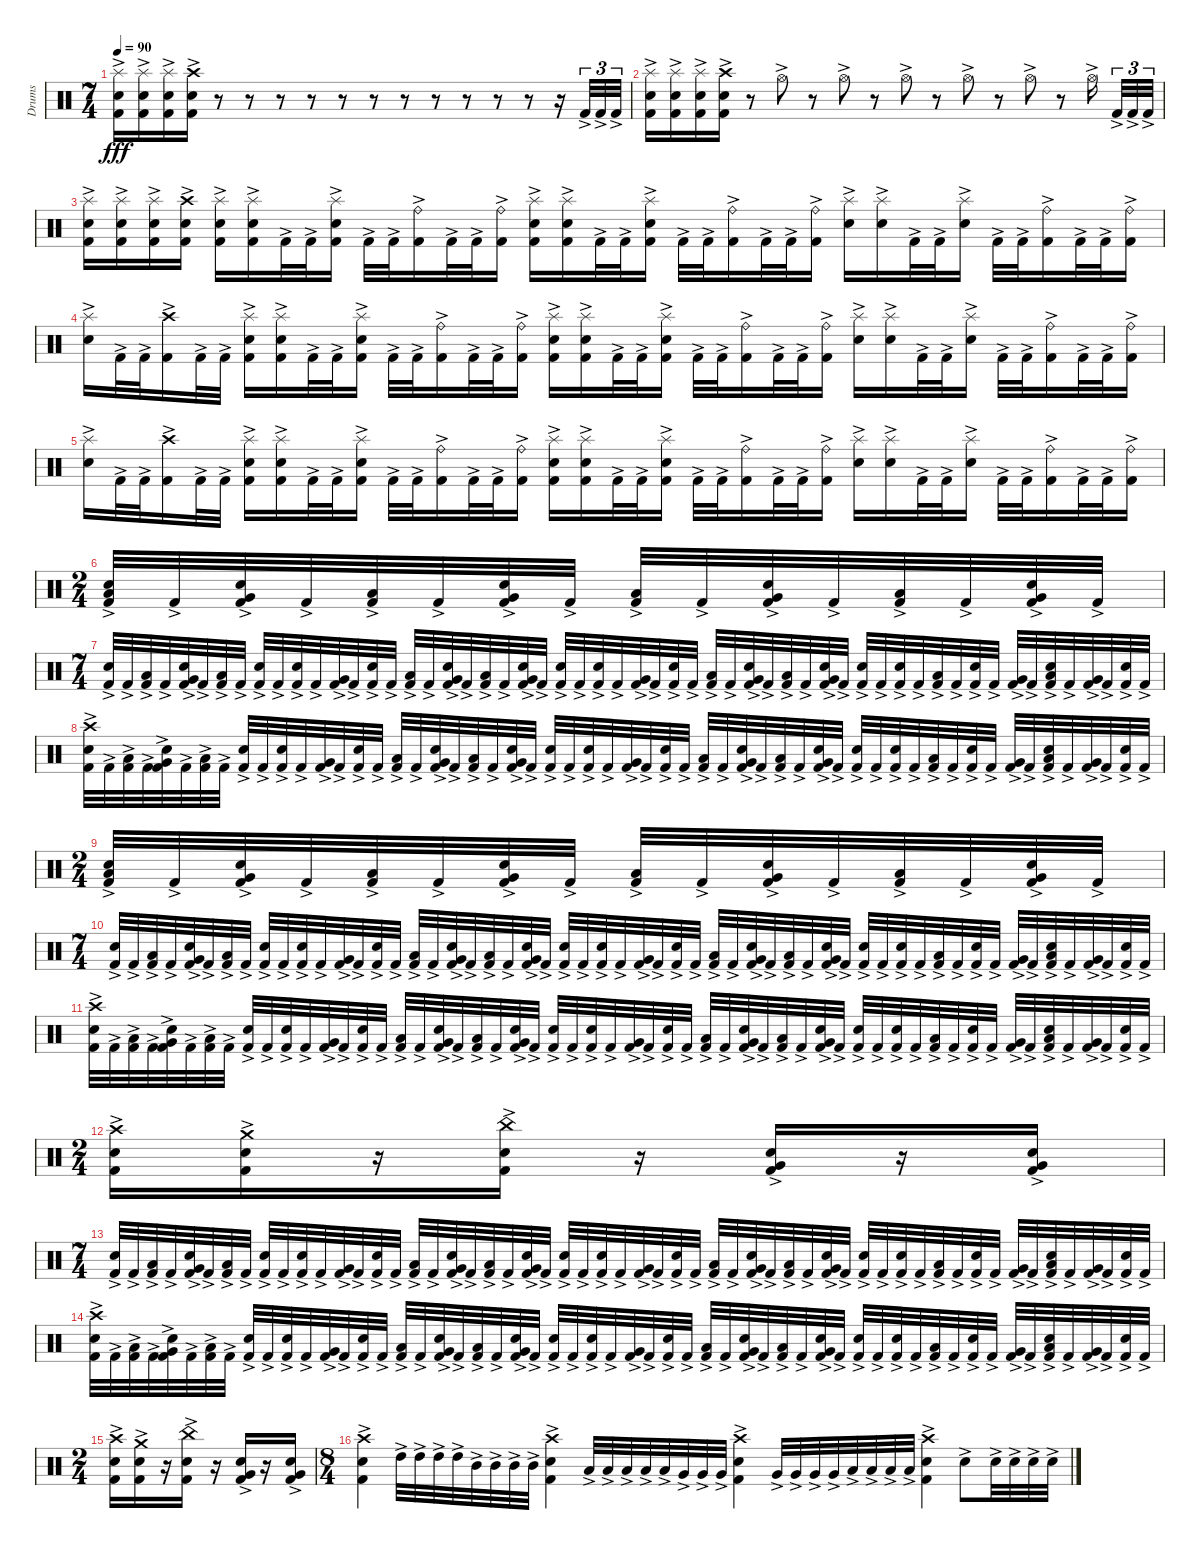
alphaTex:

\track ("Drums" "Drums") {instrument percussion}
\staff {score}
\articulation defaults
\ts (7 4)
\tempo 90
\clef neutral
\ks c
("Splash (hit)"{ac} "Snare (hit) 2"{ac} "Kick (hit) 2"{ac}).16{dy fff} ("Splash (hit)"{ac} "Snare (hit) 2"{ac} "Kick (hit) 2"{ac}).16 ("Splash (hit)"{ac} "Snare (hit) 2"{ac} "Kick (hit) 2"{ac}).16 ("Crash high (hit)"{ac} "Snare (hit) 2"{ac} "Kick (hit) 2"{ac}).16 r.8 r.8 r.8 r.8 r.8 r.8 r.8 r.8 r.8 r.8 r.8 r.16 "Kick (hit) 2"{ac}.32{tu (3 2)} "Kick (hit) 2"{ac}.32{tu (3 2)} "Kick (hit) 2"{ac}.32{tu (3 2)} |
("Splash (hit)"{ac} "Snare (hit) 2"{ac} "Kick (hit) 2"{ac}).16 ("Splash (hit)"{ac} "Snare (hit) 2"{ac} "Kick (hit) 2"{ac}).16 ("Splash (hit)"{ac} "Snare (hit) 2"{ac} "Kick (hit) 2"{ac}).16 ("Crash high (hit)"{ac} "Snare (hit) 2"{ac} "Kick (hit) 2"{ac}).16 r.8 "Hi-Hat (open)"{ac}.8 r.8 "Hi-Hat (open)"{ac}.8 r.8 "Hi-Hat (open)"{ac}.8 r.8 "Hi-Hat (open)"{ac}.8 r.8 "Hi-Hat (open)"{ac}.8 r.8 "Hi-Hat (open)"{ac}.16 "Kick (hit) 2"{ac}.32{tu (3 2)} "Kick (hit) 2"{ac}.32{tu (3 2)} "Kick (hit) 2"{ac}.32{tu (3 2)} |
("Splash (hit)"{ac} "Snare (hit) 2"{ac} "Kick (hit) 2"{ac}).16 ("Splash (hit)"{ac} "Snare (hit) 2"{ac} "Kick (hit) 2"{ac}).16 ("Splash (hit)"{ac} "Snare (hit) 2"{ac} "Kick (hit) 2"{ac}).16 ("Crash high (hit)"{ac} "Snare (hit) 2"{ac} "Kick (hit) 2"{ac}).16 ("Splash (hit)"{ac} "Snare (hit) 2"{ac} "Kick (hit) 2"{ac}).16 ("Splash (hit)"{ac} "Snare (hit) 2"{ac} "Kick (hit) 2"{ac}).16 "Kick (hit) 2"{ac}.32 "Kick (hit) 2"{ac}.32 ("Splash (hit)"{ac} "Snare (hit) 2"{ac} "Kick (hit) 2"{ac}).16 "Kick (hit) 2"{ac}.32 "Kick (hit) 2"{ac}.32 ("Ride (bell)"{ac} "Kick (hit) 2"{ac}).16 "Kick (hit) 2"{ac}.32 "Kick (hit) 2"{ac}.32 ("Ride (bell)"{ac} "Kick (hit) 2"{ac}).16 ("Splash (hit)"{ac} "Snare (hit) 2"{ac} "Kick (hit) 2"{ac}).16 ("Splash (hit)"{ac} "Snare (hit) 2"{ac} "Kick (hit) 2"{ac}).16 "Kick (hit) 2"{ac}.32 "Kick (hit) 2"{ac}.32 ("Splash (hit)"{ac} "Snare (hit) 2"{ac} "Kick (hit) 2"{ac}).16 "Kick (hit) 2"{ac}.32 "Kick (hit) 2"{ac}.32 ("Ride (bell)"{ac} "Kick (hit) 2"{ac}).16 "Kick (hit) 2"{ac}.32 "Kick (hit) 2"{ac}.32 ("Ride (bell)"{ac} "Kick (hit) 2"{ac}).16 ("Splash (hit)"{ac} "Snare (hit) 2"{ac}).16 ("Splash (hit)"{ac} "Snare (hit) 2"{ac}).16 "Kick (hit) 2"{ac}.32 "Kick (hit) 2"{ac}.32 ("Splash (hit)"{ac} "Snare (hit) 2"{ac}).16 "Kick (hit) 2"{ac}.32 "Kick (hit) 2"{ac}.32 ("Ride (bell)"{ac} "Kick (hit) 2"{ac}).16 "Kick (hit) 2"{ac}.32 "Kick (hit) 2"{ac}.32 ("Ride (bell)"{ac} "Kick (hit) 2"{ac}).16 |
("Splash (hit)"{ac} "Snare (hit) 2"{ac}).16 "Kick (hit) 2"{ac}.32 "Kick (hit) 2"{ac}.32 ("Crash high (hit)"{ac} "Kick (hit) 2"{ac}).16 "Kick (hit) 2"{ac}.32 "Kick (hit) 2"{ac}.32 ("Splash (hit)"{ac} "Snare (hit) 2"{ac} "Kick (hit) 2"{ac}).16 ("Splash (hit)"{ac} "Snare (hit) 2"{ac} "Kick (hit) 2"{ac}).16 "Kick (hit) 2"{ac}.32 "Kick (hit) 2"{ac}.32 ("Splash (hit)"{ac} "Snare (hit) 2"{ac} "Kick (hit) 2"{ac}).16 "Kick (hit) 2"{ac}.32 "Kick (hit) 2"{ac}.32 ("Ride (bell)"{ac} "Kick (hit) 2"{ac}).16 "Kick (hit) 2"{ac}.32 "Kick (hit) 2"{ac}.32 ("Ride (bell)"{ac} "Kick (hit) 2"{ac}).16 ("Splash (hit)"{ac} "Snare (hit) 2"{ac} "Kick (hit) 2"{ac}).16 ("Splash (hit)"{ac} "Snare (hit) 2"{ac} "Kick (hit) 2"{ac}).16 "Kick (hit) 2"{ac}.32 "Kick (hit) 2"{ac}.32 ("Splash (hit)"{ac} "Snare (hit) 2"{ac} "Kick (hit) 2"{ac}).16 "Kick (hit) 2"{ac}.32 "Kick (hit) 2"{ac}.32 ("Ride (bell)"{ac} "Kick (hit) 2"{ac}).16 "Kick (hit) 2"{ac}.32 "Kick (hit) 2"{ac}.32 ("Ride (bell)"{ac} "Kick (hit) 2"{ac}).16 ("Splash (hit)"{ac} "Snare (hit) 2"{ac}).16 ("Splash (hit)"{ac} "Snare (hit) 2"{ac}).16 "Kick (hit) 2"{ac}.32 "Kick (hit) 2"{ac}.32 ("Splash (hit)"{ac} "Snare (hit) 2"{ac}).16 "Kick (hit) 2"{ac}.32 "Kick (hit) 2"{ac}.32 ("Ride (bell)"{ac} "Kick (hit) 2"{ac}).16 "Kick (hit) 2"{ac}.32 "Kick (hit) 2"{ac}.32 ("Ride (bell)"{ac} "Kick (hit) 2"{ac}).16 |
("Splash (hit)"{ac} "Snare (hit) 2"{ac}).16 "Kick (hit) 2"{ac}.32 "Kick (hit) 2"{ac}.32 ("Crash high (hit)"{ac} "Kick (hit) 2"{ac}).16 "Kick (hit) 2"{ac}.32 "Kick (hit) 2"{ac}.32 ("Splash (hit)"{ac} "Snare (hit) 2"{ac} "Kick (hit) 2"{ac}).16 ("Splash (hit)"{ac} "Snare (hit) 2"{ac} "Kick (hit) 2"{ac}).16 "Kick (hit) 2"{ac}.32 "Kick (hit) 2"{ac}.32 ("Splash (hit)"{ac} "Snare (hit) 2"{ac} "Kick (hit) 2"{ac}).16 "Kick (hit) 2"{ac}.32 "Kick (hit) 2"{ac}.32 ("Ride (bell)"{ac} "Kick (hit) 2"{ac}).16 "Kick (hit) 2"{ac}.32 "Kick (hit) 2"{ac}.32 ("Ride (bell)"{ac} "Kick (hit) 2"{ac}).16 ("Splash (hit)"{ac} "Snare (hit) 2"{ac} "Kick (hit) 2"{ac}).16 ("Splash (hit)"{ac} "Snare (hit) 2"{ac} "Kick (hit) 2"{ac}).16 "Kick (hit) 2"{ac}.32 "Kick (hit) 2"{ac}.32 ("Splash (hit)"{ac} "Snare (hit) 2"{ac} "Kick (hit) 2"{ac}).16 "Kick (hit) 2"{ac}.32 "Kick (hit) 2"{ac}.32 ("Ride (bell)"{ac} "Kick (hit) 2"{ac}).16 "Kick (hit) 2"{ac}.32 "Kick (hit) 2"{ac}.32 ("Ride (bell)"{ac} "Kick (hit) 2"{ac}).16 ("Splash (hit)"{ac} "Snare (hit) 2"{ac}).16 ("Splash (hit)"{ac} "Snare (hit) 2"{ac}).16 "Kick (hit) 2"{ac}.32 "Kick (hit) 2"{ac}.32 ("Splash (hit)"{ac} "Snare (hit) 2"{ac}).16 "Kick (hit) 2"{ac}.32 "Kick (hit) 2"{ac}.32 ("Ride (bell)"{ac} "Kick (hit) 2"{ac}).16 "Kick (hit) 2"{ac}.32 "Kick (hit) 2"{ac}.32 ("Ride (bell)"{ac} "Kick (hit) 2"{ac}).16 |
\ts (2 4)
("Low Tom (hit)"{ac} "Snare (hit) 2"{ac} "Kick (hit) 2"{ac}).32 "Kick (hit) 2"{ac}.32 ("Very Low Tom (hit)"{ac} "Snare (hit) 2"{ac} "Kick (hit) 2"{ac}).32 "Kick (hit) 2"{ac}.32 ("Low Tom (hit)"{ac} "Kick (hit) 2"{ac}).32 "Kick (hit) 2"{ac}.32 ("Very Low Tom (hit)"{ac} "Snare (hit) 2"{ac} "Kick (hit) 2"{ac}).32 "Kick (hit) 2"{ac}.32 ("Low Tom (hit)"{ac} "Kick (hit) 2"{ac}).32 "Kick (hit) 2"{ac}.32 ("Very Low Tom (hit)"{ac} "Snare (hit) 2"{ac} "Kick (hit) 2"{ac}).32 "Kick (hit) 2"{ac}.32 ("Low Tom (hit)"{ac} "Kick (hit) 2"{ac}).32 "Kick (hit) 2"{ac}.32 ("Very Low Tom (hit)"{ac} "Snare (hit) 2"{ac} "Kick (hit) 2"{ac}).32 "Kick (hit) 2"{ac}.32 |
\ts (7 4)
("Snare (hit) 2"{ac} "Kick (hit) 2"{ac}).32 "Kick (hit) 2"{ac}.32 ("Low Tom (hit)"{ac} "Kick (hit) 2"{ac}).32 "Kick (hit) 2"{ac}.32 ("Very Low Tom (hit)"{ac} "Snare (hit) 2"{ac} "Kick (hit) 2"{ac}).32 "Kick (hit) 2"{ac}.32 ("Low Tom (hit)"{ac} "Kick (hit) 2"{ac}).32 "Kick (hit) 2"{ac}.32 ("Snare (hit) 2"{ac} "Kick (hit) 2"{ac}).32 "Kick (hit) 2"{ac}.32 ("Snare (hit) 2"{ac} "Kick (hit) 2"{ac}).32 "Kick (hit) 2"{ac}.32 ("Very Low Tom (hit)"{ac} "Kick (hit) 2"{ac}).32 "Kick (hit) 2"{ac}.32 ("Snare (hit) 2"{ac} "Kick (hit) 2"{ac}).32 "Kick (hit) 2"{ac}.32 ("Low Tom (hit)"{ac} "Kick (hit) 2"{ac}).32 "Kick (hit) 2"{ac}.32 ("Very Low Tom (hit)"{ac} "Snare (hit) 2"{ac} "Kick (hit) 2"{ac}).32 "Kick (hit) 2"{ac}.32 ("Low Tom (hit)"{ac} "Kick (hit) 2"{ac}).32 "Kick (hit) 2"{ac}.32 ("Very Low Tom (hit)"{ac} "Snare (hit) 2"{ac} "Kick (hit) 2"{ac}).32 "Kick (hit) 2"{ac}.32 ("Snare (hit) 2"{ac} "Kick (hit) 2"{ac}).32 "Kick (hit) 2"{ac}.32 ("Snare (hit) 2"{ac} "Kick (hit) 2"{ac}).32 "Kick (hit) 2"{ac}.32 ("Very Low Tom (hit)"{ac} "Kick (hit) 2"{ac}).32 "Kick (hit) 2"{ac}.32 ("Snare (hit) 2"{ac} "Kick (hit) 2"{ac}).32 "Kick (hit) 2"{ac}.32 ("Low Tom (hit)"{ac} "Kick (hit) 2"{ac}).32 "Kick (hit) 2"{ac}.32 ("Very Low Tom (hit)"{ac} "Snare (hit) 2"{ac} "Kick (hit) 2"{ac}).32 "Kick (hit) 2"{ac}.32 ("Low Tom (hit)"{ac} "Kick (hit) 2"{ac}).32 "Kick (hit) 2"{ac}.32 ("Very Low Tom (hit)"{ac} "Snare (hit) 2"{ac} "Kick (hit) 2"{ac}).32 "Kick (hit) 2"{ac}.32 ("Snare (hit) 2"{ac} "Kick (hit) 2"{ac}).32 "Kick (hit) 2"{ac}.32 ("Snare (hit) 2"{ac} "Kick (hit) 2"{ac}).32 "Kick (hit) 2"{ac}.32 ("Low Tom (hit)"{ac} "Kick (hit) 2"{ac}).32 "Kick (hit) 2"{ac}.32 ("Snare (hit) 2"{ac} "Kick (hit) 2"{ac}).32 "Kick (hit) 2"{ac}.32 ("Very Low Tom (hit)"{ac} "Kick (hit) 2"{ac}).32 "Kick (hit) 2"{ac}.32 ("Low Tom (hit)"{ac} "Snare (hit) 2"{ac} "Kick (hit) 2"{ac}).32 "Kick (hit) 2"{ac}.32 ("Very Low Tom (hit)"{ac} "Kick (hit) 2"{ac}).32 "Kick (hit) 2"{ac}.32 ("Snare (hit) 2"{ac} "Kick (hit) 2"{ac}).32 "Kick (hit) 2"{ac}.32 |
("Crash high (hit)"{ac} "Snare (hit) 2"{ac} "Kick (hit) 2"{ac}).32 "Kick (hit) 2"{ac}.32 ("Low Tom (hit)"{ac} "Kick (hit) 2"{ac}).32 "Kick (hit) 2"{ac}.32 ("Very Low Tom (hit)"{ac} "Snare (hit) 2"{ac} "Kick (hit) 2"{ac}).32 "Kick (hit) 2"{ac}.32 ("Low Tom (hit)"{ac} "Kick (hit) 2"{ac}).32 "Kick (hit) 2"{ac}.32 ("Snare (hit) 2"{ac} "Kick (hit) 2"{ac}).32 "Kick (hit) 2"{ac}.32 ("Snare (hit) 2"{ac} "Kick (hit) 2"{ac}).32 "Kick (hit) 2"{ac}.32 ("Very Low Tom (hit)"{ac} "Kick (hit) 2"{ac}).32 "Kick (hit) 2"{ac}.32 ("Snare (hit) 2"{ac} "Kick (hit) 2"{ac}).32 "Kick (hit) 2"{ac}.32 ("Low Tom (hit)"{ac} "Kick (hit) 2"{ac}).32 "Kick (hit) 2"{ac}.32 ("Very Low Tom (hit)"{ac} "Snare (hit) 2"{ac} "Kick (hit) 2"{ac}).32 "Kick (hit) 2"{ac}.32 ("Low Tom (hit)"{ac} "Kick (hit) 2"{ac}).32 "Kick (hit) 2"{ac}.32 ("Very Low Tom (hit)"{ac} "Snare (hit) 2"{ac} "Kick (hit) 2"{ac}).32 "Kick (hit) 2"{ac}.32 ("Snare (hit) 2"{ac} "Kick (hit) 2"{ac}).32 "Kick (hit) 2"{ac}.32 ("Snare (hit) 2"{ac} "Kick (hit) 2"{ac}).32 "Kick (hit) 2"{ac}.32 ("Very Low Tom (hit)"{ac} "Kick (hit) 2"{ac}).32 "Kick (hit) 2"{ac}.32 ("Snare (hit) 2"{ac} "Kick (hit) 2"{ac}).32 "Kick (hit) 2"{ac}.32 ("Low Tom (hit)"{ac} "Kick (hit) 2"{ac}).32 "Kick (hit) 2"{ac}.32 ("Very Low Tom (hit)"{ac} "Snare (hit) 2"{ac} "Kick (hit) 2"{ac}).32 "Kick (hit) 2"{ac}.32 ("Low Tom (hit)"{ac} "Kick (hit) 2"{ac}).32 "Kick (hit) 2"{ac}.32 ("Very Low Tom (hit)"{ac} "Snare (hit) 2"{ac} "Kick (hit) 2"{ac}).32 "Kick (hit) 2"{ac}.32 ("Snare (hit) 2"{ac} "Kick (hit) 2"{ac}).32 "Kick (hit) 2"{ac}.32 ("Snare (hit) 2"{ac} "Kick (hit) 2"{ac}).32 "Kick (hit) 2"{ac}.32 ("Low Tom (hit)"{ac} "Kick (hit) 2"{ac}).32 "Kick (hit) 2"{ac}.32 ("Snare (hit) 2"{ac} "Kick (hit) 2"{ac}).32 "Kick (hit) 2"{ac}.32 ("Very Low Tom (hit)"{ac} "Kick (hit) 2"{ac}).32 "Kick (hit) 2"{ac}.32 ("Low Tom (hit)"{ac} "Snare (hit) 2"{ac} "Kick (hit) 2"{ac}).32 "Kick (hit) 2"{ac}.32 ("Very Low Tom (hit)"{ac} "Kick (hit) 2"{ac}).32 "Kick (hit) 2"{ac}.32 ("Snare (hit) 2"{ac} "Kick (hit) 2"{ac}).32 "Kick (hit) 2"{ac}.32 |
\ts (2 4)
("Low Tom (hit)"{ac} "Snare (hit) 2"{ac} "Kick (hit) 2"{ac}).32 "Kick (hit) 2"{ac}.32 ("Very Low Tom (hit)"{ac} "Snare (hit) 2"{ac} "Kick (hit) 2"{ac}).32 "Kick (hit) 2"{ac}.32 ("Low Tom (hit)"{ac} "Kick (hit) 2"{ac}).32 "Kick (hit) 2"{ac}.32 ("Very Low Tom (hit)"{ac} "Snare (hit) 2"{ac} "Kick (hit) 2"{ac}).32 "Kick (hit) 2"{ac}.32 ("Low Tom (hit)"{ac} "Kick (hit) 2"{ac}).32 "Kick (hit) 2"{ac}.32 ("Very Low Tom (hit)"{ac} "Snare (hit) 2"{ac} "Kick (hit) 2"{ac}).32 "Kick (hit) 2"{ac}.32 ("Low Tom (hit)"{ac} "Kick (hit) 2"{ac}).32 "Kick (hit) 2"{ac}.32 ("Very Low Tom (hit)"{ac} "Snare (hit) 2"{ac} "Kick (hit) 2"{ac}).32 "Kick (hit) 2"{ac}.32 |
\ts (7 4)
("Snare (hit) 2"{ac} "Kick (hit) 2"{ac}).32 "Kick (hit) 2"{ac}.32 ("Low Tom (hit)"{ac} "Kick (hit) 2"{ac}).32 "Kick (hit) 2"{ac}.32 ("Very Low Tom (hit)"{ac} "Snare (hit) 2"{ac} "Kick (hit) 2"{ac}).32 "Kick (hit) 2"{ac}.32 ("Low Tom (hit)"{ac} "Kick (hit) 2"{ac}).32 "Kick (hit) 2"{ac}.32 ("Snare (hit) 2"{ac} "Kick (hit) 2"{ac}).32 "Kick (hit) 2"{ac}.32 ("Snare (hit) 2"{ac} "Kick (hit) 2"{ac}).32 "Kick (hit) 2"{ac}.32 ("Very Low Tom (hit)"{ac} "Kick (hit) 2"{ac}).32 "Kick (hit) 2"{ac}.32 ("Snare (hit) 2"{ac} "Kick (hit) 2"{ac}).32 "Kick (hit) 2"{ac}.32 ("Low Tom (hit)"{ac} "Kick (hit) 2"{ac}).32 "Kick (hit) 2"{ac}.32 ("Very Low Tom (hit)"{ac} "Snare (hit) 2"{ac} "Kick (hit) 2"{ac}).32 "Kick (hit) 2"{ac}.32 ("Low Tom (hit)"{ac} "Kick (hit) 2"{ac}).32 "Kick (hit) 2"{ac}.32 ("Very Low Tom (hit)"{ac} "Snare (hit) 2"{ac} "Kick (hit) 2"{ac}).32 "Kick (hit) 2"{ac}.32 ("Snare (hit) 2"{ac} "Kick (hit) 2"{ac}).32 "Kick (hit) 2"{ac}.32 ("Snare (hit) 2"{ac} "Kick (hit) 2"{ac}).32 "Kick (hit) 2"{ac}.32 ("Very Low Tom (hit)"{ac} "Kick (hit) 2"{ac}).32 "Kick (hit) 2"{ac}.32 ("Snare (hit) 2"{ac} "Kick (hit) 2"{ac}).32 "Kick (hit) 2"{ac}.32 ("Low Tom (hit)"{ac} "Kick (hit) 2"{ac}).32 "Kick (hit) 2"{ac}.32 ("Very Low Tom (hit)"{ac} "Snare (hit) 2"{ac} "Kick (hit) 2"{ac}).32 "Kick (hit) 2"{ac}.32 ("Low Tom (hit)"{ac} "Kick (hit) 2"{ac}).32 "Kick (hit) 2"{ac}.32 ("Very Low Tom (hit)"{ac} "Snare (hit) 2"{ac} "Kick (hit) 2"{ac}).32 "Kick (hit) 2"{ac}.32 ("Snare (hit) 2"{ac} "Kick (hit) 2"{ac}).32 "Kick (hit) 2"{ac}.32 ("Snare (hit) 2"{ac} "Kick (hit) 2"{ac}).32 "Kick (hit) 2"{ac}.32 ("Low Tom (hit)"{ac} "Kick (hit) 2"{ac}).32 "Kick (hit) 2"{ac}.32 ("Snare (hit) 2"{ac} "Kick (hit) 2"{ac}).32 "Kick (hit) 2"{ac}.32 ("Very Low Tom (hit)"{ac} "Kick (hit) 2"{ac}).32 "Kick (hit) 2"{ac}.32 ("Low Tom (hit)"{ac} "Snare (hit) 2"{ac} "Kick (hit) 2"{ac}).32 "Kick (hit) 2"{ac}.32 ("Very Low Tom (hit)"{ac} "Kick (hit) 2"{ac}).32 "Kick (hit) 2"{ac}.32 ("Snare (hit) 2"{ac} "Kick (hit) 2"{ac}).32 "Kick (hit) 2"{ac}.32 |
("Crash high (hit)"{ac} "Snare (hit) 2"{ac} "Kick (hit) 2"{ac}).32 "Kick (hit) 2"{ac}.32 ("Low Tom (hit)"{ac} "Kick (hit) 2"{ac}).32 "Kick (hit) 2"{ac}.32 ("Very Low Tom (hit)"{ac} "Snare (hit) 2"{ac} "Kick (hit) 2"{ac}).32 "Kick (hit) 2"{ac}.32 ("Low Tom (hit)"{ac} "Kick (hit) 2"{ac}).32 "Kick (hit) 2"{ac}.32 ("Snare (hit) 2"{ac} "Kick (hit) 2"{ac}).32 "Kick (hit) 2"{ac}.32 ("Snare (hit) 2"{ac} "Kick (hit) 2"{ac}).32 "Kick (hit) 2"{ac}.32 ("Very Low Tom (hit)"{ac} "Kick (hit) 2"{ac}).32 "Kick (hit) 2"{ac}.32 ("Snare (hit) 2"{ac} "Kick (hit) 2"{ac}).32 "Kick (hit) 2"{ac}.32 ("Low Tom (hit)"{ac} "Kick (hit) 2"{ac}).32 "Kick (hit) 2"{ac}.32 ("Very Low Tom (hit)"{ac} "Snare (hit) 2"{ac} "Kick (hit) 2"{ac}).32 "Kick (hit) 2"{ac}.32 ("Low Tom (hit)"{ac} "Kick (hit) 2"{ac}).32 "Kick (hit) 2"{ac}.32 ("Very Low Tom (hit)"{ac} "Snare (hit) 2"{ac} "Kick (hit) 2"{ac}).32 "Kick (hit) 2"{ac}.32 ("Snare (hit) 2"{ac} "Kick (hit) 2"{ac}).32 "Kick (hit) 2"{ac}.32 ("Snare (hit) 2"{ac} "Kick (hit) 2"{ac}).32 "Kick (hit) 2"{ac}.32 ("Very Low Tom (hit)"{ac} "Kick (hit) 2"{ac}).32 "Kick (hit) 2"{ac}.32 ("Snare (hit) 2"{ac} "Kick (hit) 2"{ac}).32 "Kick (hit) 2"{ac}.32 ("Low Tom (hit)"{ac} "Kick (hit) 2"{ac}).32 "Kick (hit) 2"{ac}.32 ("Very Low Tom (hit)"{ac} "Snare (hit) 2"{ac} "Kick (hit) 2"{ac}).32 "Kick (hit) 2"{ac}.32 ("Low Tom (hit)"{ac} "Kick (hit) 2"{ac}).32 "Kick (hit) 2"{ac}.32 ("Very Low Tom (hit)"{ac} "Snare (hit) 2"{ac} "Kick (hit) 2"{ac}).32 "Kick (hit) 2"{ac}.32 ("Snare (hit) 2"{ac} "Kick (hit) 2"{ac}).32 "Kick (hit) 2"{ac}.32 ("Snare (hit) 2"{ac} "Kick (hit) 2"{ac}).32 "Kick (hit) 2"{ac}.32 ("Low Tom (hit)"{ac} "Kick (hit) 2"{ac}).32 "Kick (hit) 2"{ac}.32 ("Snare (hit) 2"{ac} "Kick (hit) 2"{ac}).32 "Kick (hit) 2"{ac}.32 ("Very Low Tom (hit)"{ac} "Kick (hit) 2"{ac}).32 "Kick (hit) 2"{ac}.32 ("Low Tom (hit)"{ac} "Snare (hit) 2"{ac} "Kick (hit) 2"{ac}).32 "Kick (hit) 2"{ac}.32 ("Very Low Tom (hit)"{ac} "Kick (hit) 2"{ac}).32 "Kick (hit) 2"{ac}.32 ("Snare (hit) 2"{ac} "Kick (hit) 2"{ac}).32 "Kick (hit) 2"{ac}.32 |
\ts (2 4)
("Crash high (hit)"{ac} "Snare (hit) 2"{ac} "Kick (hit) 2"{ac}).16 ("Crash medium (hit)"{ac} "Snare (hit) 2"{ac} "Kick (hit) 2"{ac}).16 r.16 ("China (hit)"{ac} "Snare (hit) 2"{ac} "Kick (hit) 2"{ac}).16 r.16 ("Very Low Tom (hit)"{ac} "Snare (hit) 2"{ac} "Kick (hit) 2"{ac}).16 r.16 ("Very Low Tom (hit)"{ac} "Snare (hit) 2"{ac} "Kick (hit) 2"{ac}).16 |
\ts (7 4)
("Snare (hit) 2"{ac} "Kick (hit) 2"{ac}).32 "Kick (hit) 2"{ac}.32 ("Low Tom (hit)"{ac} "Kick (hit) 2"{ac}).32 "Kick (hit) 2"{ac}.32 ("Very Low Tom (hit)"{ac} "Snare (hit) 2"{ac} "Kick (hit) 2"{ac}).32 "Kick (hit) 2"{ac}.32 ("Low Tom (hit)"{ac} "Kick (hit) 2"{ac}).32 "Kick (hit) 2"{ac}.32 ("Snare (hit) 2"{ac} "Kick (hit) 2"{ac}).32 "Kick (hit) 2"{ac}.32 ("Snare (hit) 2"{ac} "Kick (hit) 2"{ac}).32 "Kick (hit) 2"{ac}.32 ("Very Low Tom (hit)"{ac} "Kick (hit) 2"{ac}).32 "Kick (hit) 2"{ac}.32 ("Snare (hit) 2"{ac} "Kick (hit) 2"{ac}).32 "Kick (hit) 2"{ac}.32 ("Low Tom (hit)"{ac} "Kick (hit) 2"{ac}).32 "Kick (hit) 2"{ac}.32 ("Very Low Tom (hit)"{ac} "Snare (hit) 2"{ac} "Kick (hit) 2"{ac}).32 "Kick (hit) 2"{ac}.32 ("Low Tom (hit)"{ac} "Kick (hit) 2"{ac}).32 "Kick (hit) 2"{ac}.32 ("Very Low Tom (hit)"{ac} "Snare (hit) 2"{ac} "Kick (hit) 2"{ac}).32 "Kick (hit) 2"{ac}.32 ("Snare (hit) 2"{ac} "Kick (hit) 2"{ac}).32 "Kick (hit) 2"{ac}.32 ("Snare (hit) 2"{ac} "Kick (hit) 2"{ac}).32 "Kick (hit) 2"{ac}.32 ("Very Low Tom (hit)"{ac} "Kick (hit) 2"{ac}).32 "Kick (hit) 2"{ac}.32 ("Snare (hit) 2"{ac} "Kick (hit) 2"{ac}).32 "Kick (hit) 2"{ac}.32 ("Low Tom (hit)"{ac} "Kick (hit) 2"{ac}).32 "Kick (hit) 2"{ac}.32 ("Very Low Tom (hit)"{ac} "Snare (hit) 2"{ac} "Kick (hit) 2"{ac}).32 "Kick (hit) 2"{ac}.32 ("Low Tom (hit)"{ac} "Kick (hit) 2"{ac}).32 "Kick (hit) 2"{ac}.32 ("Very Low Tom (hit)"{ac} "Snare (hit) 2"{ac} "Kick (hit) 2"{ac}).32 "Kick (hit) 2"{ac}.32 ("Snare (hit) 2"{ac} "Kick (hit) 2"{ac}).32 "Kick (hit) 2"{ac}.32 ("Snare (hit) 2"{ac} "Kick (hit) 2"{ac}).32 "Kick (hit) 2"{ac}.32 ("Low Tom (hit)"{ac} "Kick (hit) 2"{ac}).32 "Kick (hit) 2"{ac}.32 ("Snare (hit) 2"{ac} "Kick (hit) 2"{ac}).32 "Kick (hit) 2"{ac}.32 ("Very Low Tom (hit)"{ac} "Kick (hit) 2"{ac}).32 "Kick (hit) 2"{ac}.32 ("Low Tom (hit)"{ac} "Snare (hit) 2"{ac} "Kick (hit) 2"{ac}).32 "Kick (hit) 2"{ac}.32 ("Very Low Tom (hit)"{ac} "Kick (hit) 2"{ac}).32 "Kick (hit) 2"{ac}.32 ("Snare (hit) 2"{ac} "Kick (hit) 2"{ac}).32 "Kick (hit) 2"{ac}.32 |
("Crash high (hit)"{ac} "Snare (hit) 2"{ac} "Kick (hit) 2"{ac}).32 "Kick (hit) 2"{ac}.32 ("Low Tom (hit)"{ac} "Kick (hit) 2"{ac}).32 "Kick (hit) 2"{ac}.32 ("Very Low Tom (hit)"{ac} "Snare (hit) 2"{ac} "Kick (hit) 2"{ac}).32 "Kick (hit) 2"{ac}.32 ("Low Tom (hit)"{ac} "Kick (hit) 2"{ac}).32 "Kick (hit) 2"{ac}.32 ("Snare (hit) 2"{ac} "Kick (hit) 2"{ac}).32 "Kick (hit) 2"{ac}.32 ("Snare (hit) 2"{ac} "Kick (hit) 2"{ac}).32 "Kick (hit) 2"{ac}.32 ("Very Low Tom (hit)"{ac} "Kick (hit) 2"{ac}).32 "Kick (hit) 2"{ac}.32 ("Snare (hit) 2"{ac} "Kick (hit) 2"{ac}).32 "Kick (hit) 2"{ac}.32 ("Low Tom (hit)"{ac} "Kick (hit) 2"{ac}).32 "Kick (hit) 2"{ac}.32 ("Very Low Tom (hit)"{ac} "Snare (hit) 2"{ac} "Kick (hit) 2"{ac}).32 "Kick (hit) 2"{ac}.32 ("Low Tom (hit)"{ac} "Kick (hit) 2"{ac}).32 "Kick (hit) 2"{ac}.32 ("Very Low Tom (hit)"{ac} "Snare (hit) 2"{ac} "Kick (hit) 2"{ac}).32 "Kick (hit) 2"{ac}.32 ("Snare (hit) 2"{ac} "Kick (hit) 2"{ac}).32 "Kick (hit) 2"{ac}.32 ("Snare (hit) 2"{ac} "Kick (hit) 2"{ac}).32 "Kick (hit) 2"{ac}.32 ("Very Low Tom (hit)"{ac} "Kick (hit) 2"{ac}).32 "Kick (hit) 2"{ac}.32 ("Snare (hit) 2"{ac} "Kick (hit) 2"{ac}).32 "Kick (hit) 2"{ac}.32 ("Low Tom (hit)"{ac} "Kick (hit) 2"{ac}).32 "Kick (hit) 2"{ac}.32 ("Very Low Tom (hit)"{ac} "Snare (hit) 2"{ac} "Kick (hit) 2"{ac}).32 "Kick (hit) 2"{ac}.32 ("Low Tom (hit)"{ac} "Kick (hit) 2"{ac}).32 "Kick (hit) 2"{ac}.32 ("Very Low Tom (hit)"{ac} "Snare (hit) 2"{ac} "Kick (hit) 2"{ac}).32 "Kick (hit) 2"{ac}.32 ("Snare (hit) 2"{ac} "Kick (hit) 2"{ac}).32 "Kick (hit) 2"{ac}.32 ("Snare (hit) 2"{ac} "Kick (hit) 2"{ac}).32 "Kick (hit) 2"{ac}.32 ("Low Tom (hit)"{ac} "Kick (hit) 2"{ac}).32 "Kick (hit) 2"{ac}.32 ("Snare (hit) 2"{ac} "Kick (hit) 2"{ac}).32 "Kick (hit) 2"{ac}.32 ("Very Low Tom (hit)"{ac} "Kick (hit) 2"{ac}).32 "Kick (hit) 2"{ac}.32 ("Low Tom (hit)"{ac} "Snare (hit) 2"{ac} "Kick (hit) 2"{ac}).32 "Kick (hit) 2"{ac}.32 ("Very Low Tom (hit)"{ac} "Kick (hit) 2"{ac}).32 "Kick (hit) 2"{ac}.32 ("Snare (hit) 2"{ac} "Kick (hit) 2"{ac}).32 "Kick (hit) 2"{ac}.32 |
\ts (2 4)
("Crash high (hit)"{ac} "Snare (hit) 2"{ac} "Kick (hit) 2"{ac}).16 ("Crash medium (hit)"{ac} "Snare (hit) 2"{ac} "Kick (hit) 2"{ac}).16 r.16 ("China (hit)"{ac} "Snare (hit) 2"{ac} "Kick (hit) 2"{ac}).16 r.16 ("Very Low Tom (hit)"{ac} "Snare (hit) 2"{ac} "Kick (hit) 2"{ac}).16 r.16 ("Very Low Tom (hit)"{ac} "Snare (hit) 2"{ac} "Kick (hit) 2"{ac}).16 |
\ts (8 4)
("Crash high (hit)"{ac} "Snare (hit) 2"{ac} "Kick (hit) 2"{ac}).4 "High Tom (hit)"{ac}.32 "High Tom (hit)"{ac}.32 "High Tom (hit)"{ac}.32 "High Tom (hit)"{ac}.32 "Mid Tom (hit)"{ac}.32 "Mid Tom (hit)"{ac}.32 "Mid Tom (hit)"{ac}.32 "Mid Tom (hit)"{ac}.32 ("Crash high (hit)"{ac} "Snare (hit) 2"{ac} "Kick (hit) 2"{ac}).4 "Low Tom (hit)"{ac}.32 "Low Tom (hit)"{ac}.32 "Low Tom (hit)"{ac}.32 "Low Tom (hit)"{ac}.32 "Low Tom (hit)"{ac}.32 "Very Low Tom (hit)"{ac}.32 "Very Low Tom (hit)"{ac}.32 "Very Low Tom (hit)"{ac}.32 ("Crash high (hit)"{ac} "Snare (hit) 2"{ac} "Kick (hit) 2"{ac}).4 "Very Low Tom (hit)"{ac}.32 "Very Low Tom (hit)"{ac}.32 "Very Low Tom (hit)"{ac}.32 "Very Low Tom (hit)"{ac}.32 "Low Floor Tom (hit)"{ac}.32 "Low Floor Tom (hit)"{ac}.32 "Low Floor Tom (hit)"{ac}.32 "Low Floor Tom (hit)"{ac}.32 ("Crash high (hit)"{ac} "Snare (hit) 2"{ac} "Kick (hit) 2"{ac}).4 "Snare (hit) 2"{ac}.8 "Snare (hit) 2"{ac}.32 "Snare (hit) 2"{ac}.32 "Snare (hit) 2"{ac}.32 "Snare (hit) 2"{ac}.32
